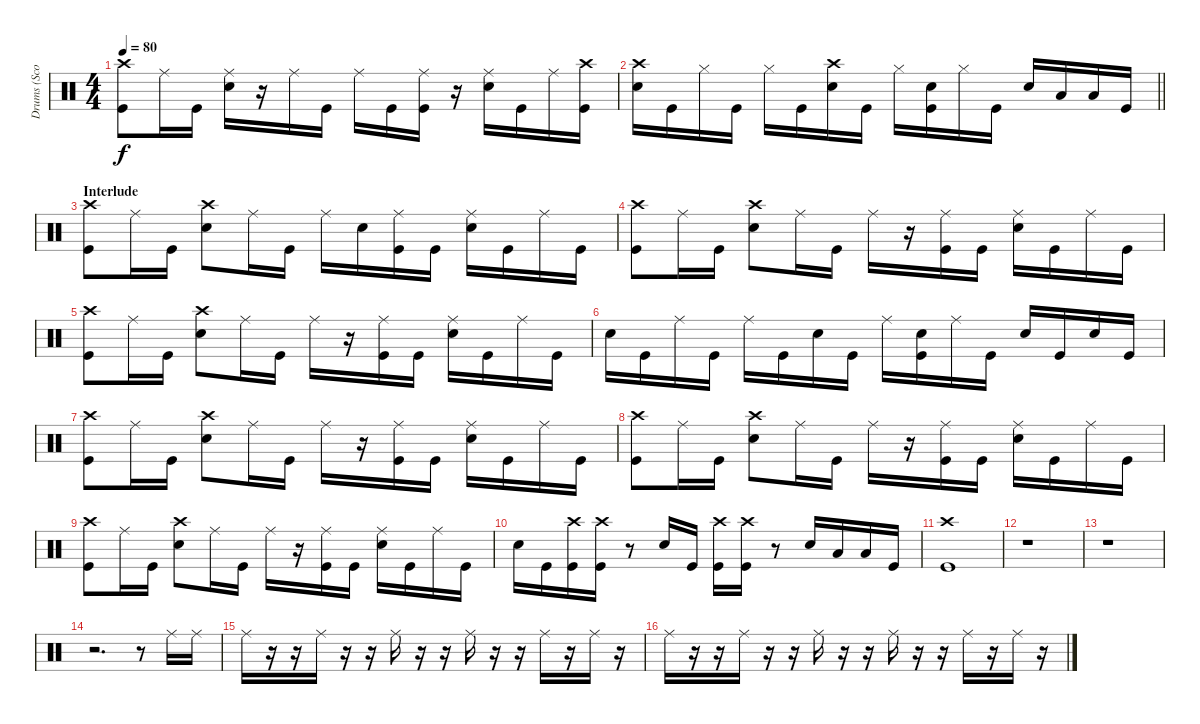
\track ("Drums (Scott Phillips)" "Drums (Sco") {instrument percussion}
\staff {score}
\articulation defaults
\ts (4 4)
\tempo 80
\clef neutral
\ks c
("Crash high (hit)" "Kick (hit)").8{dy f} "Ride (middle)".16 "Kick (hit)".16 ("Ride (middle)" "Snare (hit) 2").16 r.16 "Ride (middle)".16 "Kick (hit)".16 "Ride (middle)".16 "Kick (hit)".16 ("Ride (middle)" "Kick (hit)").16 r.16 ("Ride (middle)" "Snare (hit) 2").16 "Kick (hit)".16 "Ride (middle)".16 ("Crash high (hit)" "Kick (hit)").16 |
\barLineRight lightlight
("Crash high (hit)" "Snare (hit) 2").16 "Kick (hit)".16 "Hi-Hat (closed)".16 "Kick (hit)".16 "Hi-Hat (closed)".16 "Kick (hit)".16 ("Crash high (hit)" "Snare (hit) 2").16 "Kick (hit)".16 "Hi-Hat (closed)".16 ("Snare (hit) 2" "Kick (hit)").16 "Hi-Hat (closed)".16 "Kick (hit)".16 "Snare (hit) 2".16 "Low Tom (hit)".16 "Low Tom (hit)".16 "Kick (hit)".16 |
\section ("" "Interlude")
("Crash high (hit)" "Kick (hit)").8 "Ride (middle)".16 "Kick (hit)".16 ("Crash high (hit)" "Snare (hit) 2").8 "Ride (middle)".16 "Kick (hit)".16 "Ride (middle)".16 "Snare (hit) 2".16 ("Ride (middle)" "Kick (hit)").16 "Kick (hit)".16 ("Ride (middle)" "Snare (hit) 2").16 "Kick (hit)".16 "Ride (middle)".16 "Kick (hit)".16 |
("Crash high (hit)" "Kick (hit)").8 "Ride (middle)".16 "Kick (hit)".16 ("Crash high (hit)" "Snare (hit) 2").8 "Ride (middle)".16 "Kick (hit)".16 "Ride (middle)".16 r.16 ("Ride (middle)" "Kick (hit)").16 "Kick (hit)".16 ("Ride (middle)" "Snare (hit) 2").16 "Kick (hit)".16 "Ride (middle)".16 "Kick (hit)".16 |
("Crash high (hit)" "Kick (hit)").8 "Ride (middle)".16 "Kick (hit)".16 ("Crash high (hit)" "Snare (hit) 2").8 "Ride (middle)".16 "Kick (hit)".16 "Ride (middle)".16 r.16 ("Ride (middle)" "Kick (hit)").16 "Kick (hit)".16 ("Ride (middle)" "Snare (hit) 2").16 "Kick (hit)".16 "Ride (middle)".16 "Kick (hit)".16 |
"Snare (hit) 2".16 "Kick (hit)".16 "Ride (middle)".16 "Kick (hit)".16 "Ride (middle)".16 "Kick (hit)".16 "Snare (hit) 2".16 "Kick (hit)".16 "Ride (middle)".16 ("Snare (hit) 2" "Kick (hit)").16 "Ride (middle)".16 "Kick (hit)".16 "Snare (hit) 2".16 "Kick (hit)".16 "Snare (hit) 2".16 "Kick (hit)".16 |
("Crash high (hit)" "Kick (hit)").8 "Ride (middle)".16 "Kick (hit)".16 ("Crash high (hit)" "Snare (hit) 2").8 "Ride (middle)".16 "Kick (hit)".16 "Ride (middle)".16 r.16 ("Ride (middle)" "Kick (hit)").16 "Kick (hit)".16 ("Ride (middle)" "Snare (hit) 2").16 "Kick (hit)".16 "Ride (middle)".16 "Kick (hit)".16 |
("Crash high (hit)" "Kick (hit)").8 "Ride (middle)".16 "Kick (hit)".16 ("Crash high (hit)" "Snare (hit) 2").8 "Ride (middle)".16 "Kick (hit)".16 "Ride (middle)".16 r.16 ("Ride (middle)" "Kick (hit)").16 "Kick (hit)".16 ("Ride (middle)" "Snare (hit) 2").16 "Kick (hit)".16 "Ride (middle)".16 "Kick (hit)".16 |
("Crash high (hit)" "Kick (hit)").8 "Ride (middle)".16 "Kick (hit)".16 ("Crash high (hit)" "Snare (hit) 2").8 "Ride (middle)".16 "Kick (hit)".16 "Ride (middle)".16 r.16 ("Ride (middle)" "Kick (hit)").16 "Kick (hit)".16 ("Ride (middle)" "Snare (hit) 2").16 "Kick (hit)".16 "Ride (middle)".16 "Kick (hit)".16 |
"Snare (hit) 2".16 "Kick (hit)".16 ("Crash high (hit)" "Kick (hit)").16 ("Crash high (hit)" "Kick (hit)").16 r.8 "Snare (hit) 2".16 "Kick (hit)".16 ("Crash high (hit)" "Kick (hit)").16 ("Crash high (hit)" "Kick (hit)").16 r.8 "Snare (hit) 2".16 "Low Tom (hit)".16 "Low Tom (hit)".16 "Kick (hit)".16 |
("Crash high (hit)" "Kick (hit)").1 |
r.1 |
r.1 |
r.2{d} r.8 "Ride (middle)".16 "Ride (middle)".16 |
"Ride (middle)".16 r.16 r.16 "Ride (middle)".16 r.16 r.16 "Ride (middle)".16 r.16 r.16 "Ride (middle)".16 r.16 r.16 "Ride (middle)".16 r.16 "Ride (middle)".16 r.16 |
"Ride (middle)".16 r.16 r.16 "Ride (middle)".16 r.16 r.16 "Ride (middle)".16 r.16 r.16 "Ride (middle)".16 r.16 r.16 "Ride (middle)".16 r.16 "Ride (middle)".16 r.16
